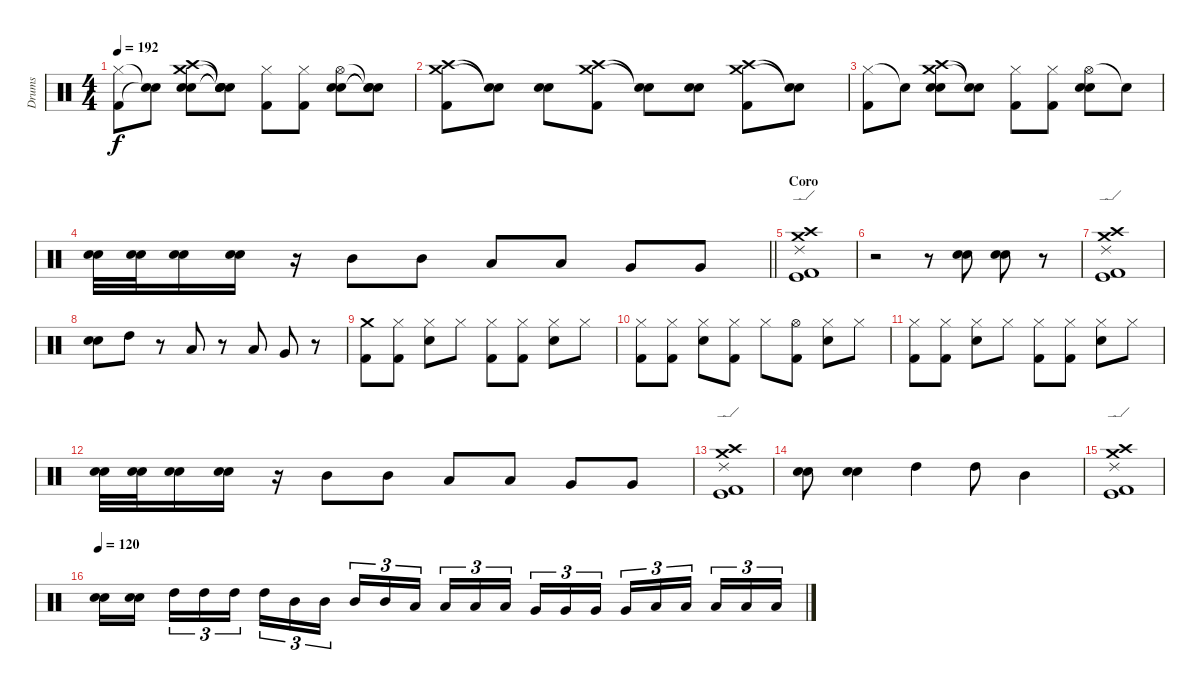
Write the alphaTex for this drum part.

\track ("Drums" "Drums") {instrument percussion}
\staff {score}
\articulation defaults
\ts (4 4)
\tempo 192
\clef neutral
\ks c
("Hi-Hat (closed)" "Kick (hit) 2").8{dy f} ("Snare (hit)"{t} "Snare (hit)"{t}).8 ("Crash medium (hit)" "Crash high (hit)" "Snare (hit) 2" "Electric Snare (hit)").8 ("Snare (hit)"{t} "Snare (hit)"{t} "Snare (hit)"{t} "Snare (hit)"{t}).8 ("Hi-Hat (closed)" "Kick (hit) 2").8 ("Hi-Hat (closed)" "Kick (hit) 2").8 ("Hi-Hat (open)" "Snare (hit) 2" "Electric Snare (hit)").8 ("Snare (hit)"{t} "Snare (hit)"{t} "Snare (hit)"{t}).8 |
("Crash medium (hit)" "Crash high (hit)" "Kick (hit) 2").8 ("Snare (hit)"{t} "Snare (hit)"{t}).8 ("Snare (hit) 2" "Electric Snare (hit)").8 ("Crash medium (hit)" "Crash high (hit)" "Kick (hit) 2").8 ("Snare (hit)"{t} "Snare (hit)"{t}).8 ("Snare (hit) 2" "Electric Snare (hit)").8 ("Crash medium (hit)" "Crash high (hit)" "Kick (hit) 2").8 ("Snare (hit)"{t} "Snare (hit)"{t}).8 |
("Hi-Hat (closed)" "Kick (hit) 2").8 "Snare (hit)"{t}.8 ("Crash medium (hit)" "Crash high (hit)" "Snare (hit) 2" "Electric Snare (hit)").8 ("Snare (hit)"{t} "Snare (hit)"{t}).8 ("Hi-Hat (closed)" "Kick (hit) 2").8 ("Hi-Hat (closed)" "Kick (hit) 2").8 ("Hi-Hat (open)" "Snare (hit) 2" "Electric Snare (hit)").8 "Snare (hit)"{t}.8 |
\barLineRight lightlight
("Snare (hit) 2" "Electric Snare (hit)").32 ("Snare (hit) 2" "Electric Snare (hit)").32 ("Snare (hit) 2" "Electric Snare (hit)").16 ("Snare (hit) 2" "Electric Snare (hit)").16 r.16 "Mid Tom (hit)".8 "Mid Tom (hit)".8 "Low Tom (hit)".8 "Low Tom (hit)".8 "Very Low Tom (hit)".8 "Very Low Tom (hit)".8 |
\section ("" "Coro")
("Crash medium (hit)" "Ride (edge) 2" "Crash high (hit)" "Kick (hit)" "Kick (hit) 2").1 |
r.2 r.8 ("Electric Snare (hit)" "Snare (hit) 2").8 ("Electric Snare (hit)" "Snare (hit) 2").8 r.8 |
("Crash medium (hit)" "Ride (edge) 2" "Crash high (hit)" "Kick (hit)" "Kick (hit) 2").1 |
("Snare (hit) 2" "Electric Snare (hit)").8 "High Tom (hit)".8 r.8 "Low Tom (hit)".8 r.8 "Low Tom (hit)".8 "Very Low Tom (hit)".8 r.8 |
("Crash medium (hit)" "Kick (hit) 2").8 ("Hi-Hat (closed)" "Kick (hit) 2").8 ("Hi-Hat (closed)" "Snare (hit) 2").8 "Hi-Hat (closed)".8 ("Hi-Hat (closed)" "Kick (hit) 2").8 ("Hi-Hat (closed)" "Kick (hit) 2").8 ("Hi-Hat (closed)" "Snare (hit) 2").8 "Hi-Hat (closed)".8 |
("Hi-Hat (closed)" "Kick (hit) 2").8 ("Hi-Hat (closed)" "Kick (hit) 2").8 ("Hi-Hat (closed)" "Snare (hit) 2").8 ("Hi-Hat (closed)" "Kick (hit) 2").8 "Hi-Hat (closed)".8 ("Hi-Hat (open)" "Kick (hit) 2").8 ("Hi-Hat (closed)" "Snare (hit) 2").8 "Hi-Hat (closed)".8 |
("Hi-Hat (closed)" "Kick (hit) 2").8 ("Hi-Hat (closed)" "Kick (hit) 2").8 ("Hi-Hat (closed)" "Snare (hit) 2").8 "Hi-Hat (closed)".8 ("Hi-Hat (closed)" "Kick (hit) 2").8 ("Hi-Hat (closed)" "Kick (hit) 2").8 ("Hi-Hat (closed)" "Snare (hit) 2").8 "Hi-Hat (closed)".8 |
("Snare (hit) 2" "Electric Snare (hit)").32 ("Snare (hit) 2" "Electric Snare (hit)").32 ("Snare (hit) 2" "Electric Snare (hit)").16 ("Snare (hit) 2" "Electric Snare (hit)").16 r.16 "Mid Tom (hit)".8 "Mid Tom (hit)".8 "Low Tom (hit)".8 "Low Tom (hit)".8 "Very Low Tom (hit)".8 "Very Low Tom (hit)".8 |
("Crash medium (hit)" "Ride (edge) 2" "Crash high (hit)" "Kick (hit)" "Kick (hit) 2").1 |
("Electric Snare (hit)" "Snare (hit) 2").8 ("Electric Snare (hit)" "Snare (hit) 2").4 "High Tom (hit)".4 "High Tom (hit)".8 "Mid Tom (hit)".4 |
("Crash medium (hit)" "Ride (edge) 2" "Crash high (hit)" "Kick (hit)" "Kick (hit) 2").1 |
\tempo 120
("Snare (hit) 2" "Electric Snare (hit)").16 ("Snare (hit) 2" "Electric Snare (hit)").16{beam splitsecondary} "High Tom (hit)".16{tu (3 2)} "High Tom (hit)".16{tu (3 2)} "High Tom (hit)".16{tu (3 2)} "High Tom (hit)".16{tu (3 2)} "Mid Tom (hit)".16{tu (3 2)} "Mid Tom (hit)".16{tu (3 2) beam splitsecondary} "Mid Tom (hit)".16{tu (3 2)} "Mid Tom (hit)".16{tu (3 2)} "Low Tom (hit)".16{tu (3 2)} "Low Tom (hit)".16{tu (3 2)} "Low Tom (hit)".16{tu (3 2)} "Low Tom (hit)".16{tu (3 2) beam splitsecondary} "Very Low Tom (hit)".16{tu (3 2)} "Very Low Tom (hit)".16{tu (3 2)} "Very Low Tom (hit)".16{tu (3 2)} "Very Low Tom (hit)".16{tu (3 2)} "Low Floor Tom (hit)".16{tu (3 2)} "Low Floor Tom (hit)".16{tu (3 2) beam splitsecondary} "Low Floor Tom (hit)".16{tu (3 2)} "Low Floor Tom (hit)".16{tu (3 2)} "Low Floor Tom (hit)".16{tu (3 2)}
